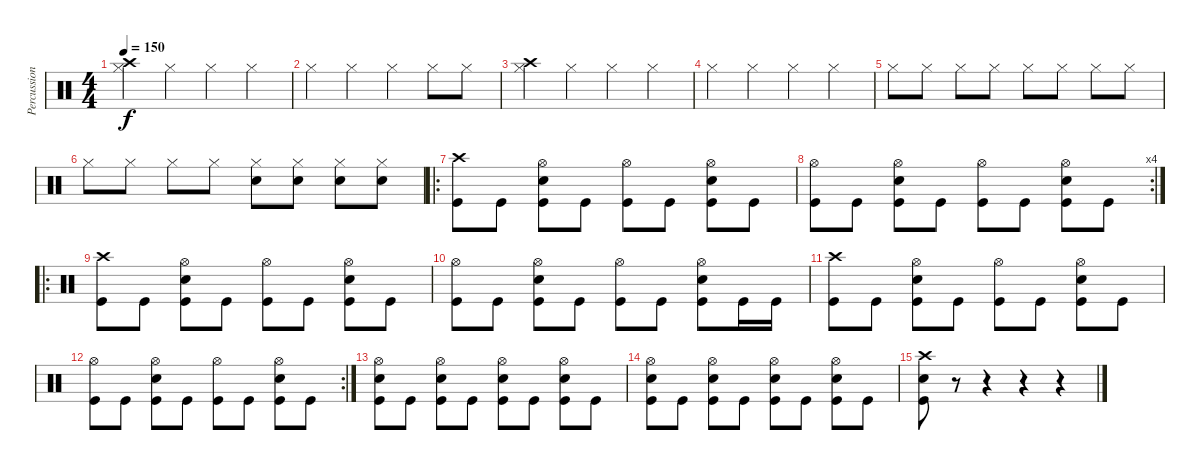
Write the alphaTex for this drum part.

\track ("Percussion" "Percussion") {instrument percussion}
\staff {score}
\articulation defaults
\ts (4 4)
\tempo 150
\clef neutral
\ks c
("Crash high (hit)" "Hi-Hat (closed)").4{dy f} "Hi-Hat (closed)".4 "Hi-Hat (closed)".4 "Hi-Hat (closed)".4 |
"Hi-Hat (closed)".4 "Hi-Hat (closed)".4 "Hi-Hat (closed)".4 "Hi-Hat (closed)".8 "Hi-Hat (closed)".8 |
("Crash high (hit)" "Hi-Hat (closed)").4 "Hi-Hat (closed)".4 "Hi-Hat (closed)".4 "Hi-Hat (closed)".4 |
"Hi-Hat (closed)".4 "Hi-Hat (closed)".4 "Hi-Hat (closed)".4 "Hi-Hat (closed)".4 |
"Hi-Hat (closed)".8 "Hi-Hat (closed)".8 "Hi-Hat (closed)".8 "Hi-Hat (closed)".8 "Hi-Hat (closed)".8 "Hi-Hat (closed)".8 "Hi-Hat (closed)".8 "Hi-Hat (closed)".8 |
"Hi-Hat (closed)".8 "Hi-Hat (closed)".8 "Hi-Hat (closed)".8 "Hi-Hat (closed)".8 ("Hi-Hat (closed)" "Snare (hit) 2").8 ("Hi-Hat (closed)" "Snare (hit) 2").8 ("Hi-Hat (closed)" "Snare (hit) 2").8 ("Hi-Hat (closed)" "Snare (hit) 2").8 |
\ro
("Crash high (hit)" "Kick (hit)").8 "Kick (hit)".8 ("Hi-Hat (open)" "Snare (hit) 2" "Kick (hit)").8 "Kick (hit)".8 ("Hi-Hat (open)" "Kick (hit)").8 "Kick (hit)".8 ("Hi-Hat (open)" "Snare (hit) 2" "Kick (hit)").8 "Kick (hit)".8 |
\rc 4
("Hi-Hat (open)" "Kick (hit)").8 "Kick (hit)".8 ("Hi-Hat (open)" "Snare (hit) 2" "Kick (hit)").8 "Kick (hit)".8 ("Hi-Hat (open)" "Kick (hit)").8 "Kick (hit)".8 ("Hi-Hat (open)" "Snare (hit) 2" "Kick (hit)").8 "Kick (hit)".8 |
\ro
("Crash high (hit)" "Kick (hit)").8 "Kick (hit)".8 ("Hi-Hat (open)" "Snare (hit) 2" "Kick (hit)").8 "Kick (hit)".8 ("Hi-Hat (open)" "Kick (hit)").8 "Kick (hit)".8 ("Hi-Hat (open)" "Snare (hit) 2" "Kick (hit)").8 "Kick (hit)".8 |
("Hi-Hat (open)" "Kick (hit)").8 "Kick (hit)".8 ("Hi-Hat (open)" "Snare (hit) 2" "Kick (hit)").8 "Kick (hit)".8 ("Hi-Hat (open)" "Kick (hit)").8 "Kick (hit)".8 ("Hi-Hat (open)" "Snare (hit) 2" "Kick (hit)").8 "Kick (hit)".16 "Kick (hit)".16 |
("Crash high (hit)" "Kick (hit)").8 "Kick (hit)".8 ("Hi-Hat (open)" "Snare (hit) 2" "Kick (hit)").8 "Kick (hit)".8 ("Hi-Hat (open)" "Kick (hit)").8 "Kick (hit)".8 ("Hi-Hat (open)" "Snare (hit) 2" "Kick (hit)").8 "Kick (hit)".8 |
\rc 2
("Hi-Hat (open)" "Kick (hit)").8 "Kick (hit)".8 ("Hi-Hat (open)" "Snare (hit) 2" "Kick (hit)").8 "Kick (hit)".8 ("Hi-Hat (open)" "Kick (hit)").8 "Kick (hit)".8 ("Hi-Hat (open)" "Snare (hit) 2" "Kick (hit)").8 "Kick (hit)".8 |
("Hi-Hat (open)" "Snare (hit) 2" "Kick (hit)").8 "Kick (hit)".8 ("Hi-Hat (open)" "Snare (hit) 2" "Kick (hit)").8 "Kick (hit)".8 ("Hi-Hat (open)" "Snare (hit) 2" "Kick (hit)").8 "Kick (hit)".8 ("Hi-Hat (open)" "Snare (hit) 2" "Kick (hit)").8 "Kick (hit)".8 |
("Hi-Hat (open)" "Snare (hit) 2" "Kick (hit)").8 "Kick (hit)".8 ("Hi-Hat (open)" "Snare (hit) 2" "Kick (hit)").8 "Kick (hit)".8 ("Hi-Hat (open)" "Snare (hit) 2" "Kick (hit)").8 "Kick (hit)".8 ("Hi-Hat (open)" "Snare (hit) 2" "Kick (hit)").8 "Kick (hit)".8 |
("Crash high (hit)" "Snare (hit) 2" "Kick (hit)").8 r.8 r.4 r.4 r.4
